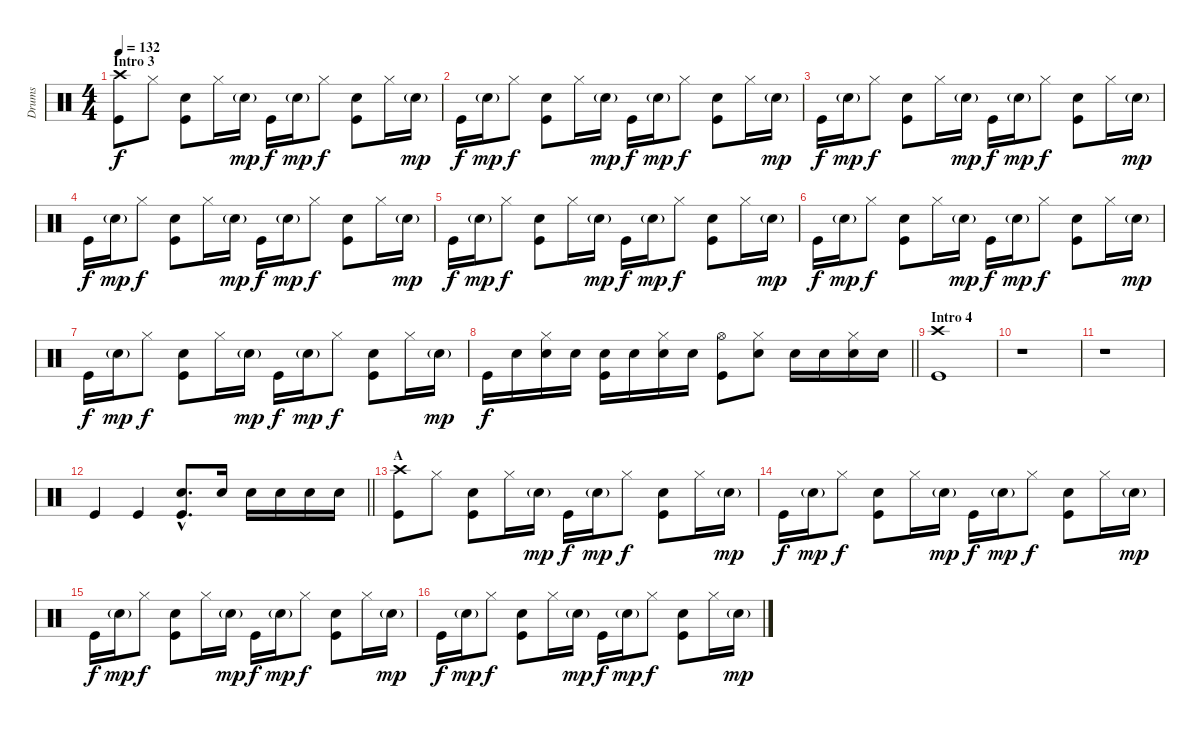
\track ("Drums" "Drums") {instrument percussion}
\staff {score}
\articulation defaults
\ts (4 4)
\section ("" "Intro 3")
\tempo 132
\clef neutral
\ks c
("Crash high (hit)" "Kick (hit)").8{dy f} "Hi-Hat (closed)".8 ("Electric Snare (hit)" "Kick (hit)").8 "Hi-Hat (closed)".16 "Electric Snare (hit)"{g}.16{dy mp} "Kick (hit)".16{dy f} "Electric Snare (hit)"{g}.16{dy mp} "Hi-Hat (closed)".8{dy f} ("Electric Snare (hit)" "Kick (hit)").8 "Hi-Hat (closed)".16 "Electric Snare (hit)"{g}.16{dy mp} |
"Kick (hit)".16{dy f} "Electric Snare (hit)"{g}.16{dy mp} "Hi-Hat (closed)".8{dy f} ("Electric Snare (hit)" "Kick (hit)").8 "Hi-Hat (closed)".16 "Electric Snare (hit)"{g}.16{dy mp} "Kick (hit)".16{dy f} "Electric Snare (hit)"{g}.16{dy mp} "Hi-Hat (closed)".8{dy f} ("Electric Snare (hit)" "Kick (hit)").8 "Hi-Hat (closed)".16 "Electric Snare (hit)"{g}.16{dy mp} |
"Kick (hit)".16{dy f} "Electric Snare (hit)"{g}.16{dy mp} "Hi-Hat (closed)".8{dy f} ("Electric Snare (hit)" "Kick (hit)").8 "Hi-Hat (closed)".16 "Electric Snare (hit)"{g}.16{dy mp} "Kick (hit)".16{dy f} "Electric Snare (hit)"{g}.16{dy mp} "Hi-Hat (closed)".8{dy f} ("Electric Snare (hit)" "Kick (hit)").8 "Hi-Hat (closed)".16 "Electric Snare (hit)"{g}.16{dy mp} |
"Kick (hit)".16{dy f} "Electric Snare (hit)"{g}.16{dy mp} "Hi-Hat (closed)".8{dy f} ("Electric Snare (hit)" "Kick (hit)").8 "Hi-Hat (closed)".16 "Electric Snare (hit)"{g}.16{dy mp} "Kick (hit)".16{dy f} "Electric Snare (hit)"{g}.16{dy mp} "Hi-Hat (closed)".8{dy f} ("Electric Snare (hit)" "Kick (hit)").8 "Hi-Hat (closed)".16 "Electric Snare (hit)"{g}.16{dy mp} |
"Kick (hit)".16{dy f} "Electric Snare (hit)"{g}.16{dy mp} "Hi-Hat (closed)".8{dy f} ("Electric Snare (hit)" "Kick (hit)").8 "Hi-Hat (closed)".16 "Electric Snare (hit)"{g}.16{dy mp} "Kick (hit)".16{dy f} "Electric Snare (hit)"{g}.16{dy mp} "Hi-Hat (closed)".8{dy f} ("Electric Snare (hit)" "Kick (hit)").8 "Hi-Hat (closed)".16 "Electric Snare (hit)"{g}.16{dy mp} |
"Kick (hit)".16{dy f} "Electric Snare (hit)"{g}.16{dy mp} "Hi-Hat (closed)".8{dy f} ("Electric Snare (hit)" "Kick (hit)").8 "Hi-Hat (closed)".16 "Electric Snare (hit)"{g}.16{dy mp} "Kick (hit)".16{dy f} "Electric Snare (hit)"{g}.16{dy mp} "Hi-Hat (closed)".8{dy f} ("Electric Snare (hit)" "Kick (hit)").8 "Hi-Hat (closed)".16 "Electric Snare (hit)"{g}.16{dy mp} |
"Kick (hit)".16{dy f} "Electric Snare (hit)"{g}.16{dy mp} "Hi-Hat (closed)".8{dy f} ("Electric Snare (hit)" "Kick (hit)").8 "Hi-Hat (closed)".16 "Electric Snare (hit)"{g}.16{dy mp} "Kick (hit)".16{dy f} "Electric Snare (hit)"{g}.16{dy mp} "Hi-Hat (closed)".8{dy f} ("Electric Snare (hit)" "Kick (hit)").8 "Hi-Hat (closed)".16 "Electric Snare (hit)"{g}.16{dy mp} |
\barLineRight lightlight "Kick (hit)".16{dy f} "Electric Snare (hit)".16
("Hi-Hat (closed)" "Electric Snare (hit)").16 "Electric Snare (hit)".16 ("Electric Snare (hit)" "Kick (hit)").16 "Electric Snare (hit)".16 ("Hi-Hat (closed)" "Electric Snare (hit)").16 "Electric Snare (hit)".16 ("Hi-Hat (open)" "Kick (hit)").8 ("Hi-Hat (closed)" "Electric Snare (hit)").8 "Electric Snare (hit)".16 "Electric Snare (hit)".16 ("Hi-Hat (closed)" "Electric Snare (hit)").16 "Electric Snare (hit)".16 |
\section ("" "Intro 4")
("Crash high (hit)" "Kick (hit)").1 |
r.1 |
r.1 |
\barLineRight lightlight "Kick (hit)".4 "Kick (hit)".4
("Electric Snare (hit)"{hac} "Kick (hit)"{hac}).8{d} "Electric Snare (hit)".16 "Electric Snare (hit)".16 "Electric Snare (hit)".16 "Electric Snare (hit)".16 "Electric Snare (hit)".16 |
\section ("" "A")
("Crash high (hit)" "Kick (hit)").8 "Hi-Hat (closed)".8 ("Electric Snare (hit)" "Kick (hit)").8 "Hi-Hat (closed)".16 "Electric Snare (hit)"{g}.16{dy mp} "Kick (hit)".16{dy f} "Electric Snare (hit)"{g}.16{dy mp} "Hi-Hat (closed)".8{dy f} ("Electric Snare (hit)" "Kick (hit)").8 "Hi-Hat (closed)".16 "Electric Snare (hit)"{g}.16{dy mp} |
"Kick (hit)".16{dy f} "Electric Snare (hit)"{g}.16{dy mp} "Hi-Hat (closed)".8{dy f} ("Electric Snare (hit)" "Kick (hit)").8 "Hi-Hat (closed)".16 "Electric Snare (hit)"{g}.16{dy mp} "Kick (hit)".16{dy f} "Electric Snare (hit)"{g}.16{dy mp} "Hi-Hat (closed)".8{dy f} ("Electric Snare (hit)" "Kick (hit)").8 "Hi-Hat (closed)".16 "Electric Snare (hit)"{g}.16{dy mp} |
"Kick (hit)".16{dy f} "Electric Snare (hit)"{g}.16{dy mp} "Hi-Hat (closed)".8{dy f} ("Electric Snare (hit)" "Kick (hit)").8 "Hi-Hat (closed)".16 "Electric Snare (hit)"{g}.16{dy mp} "Kick (hit)".16{dy f} "Electric Snare (hit)"{g}.16{dy mp} "Hi-Hat (closed)".8{dy f} ("Electric Snare (hit)" "Kick (hit)").8 "Hi-Hat (closed)".16 "Electric Snare (hit)"{g}.16{dy mp} |
"Kick (hit)".16{dy f} "Electric Snare (hit)"{g}.16{dy mp} "Hi-Hat (closed)".8{dy f} ("Electric Snare (hit)" "Kick (hit)").8 "Hi-Hat (closed)".16 "Electric Snare (hit)"{g}.16{dy mp} "Kick (hit)".16{dy f} "Electric Snare (hit)"{g}.16{dy mp} "Hi-Hat (closed)".8{dy f} ("Electric Snare (hit)" "Kick (hit)").8 "Hi-Hat (closed)".16 "Electric Snare (hit)"{g}.16{dy mp}
